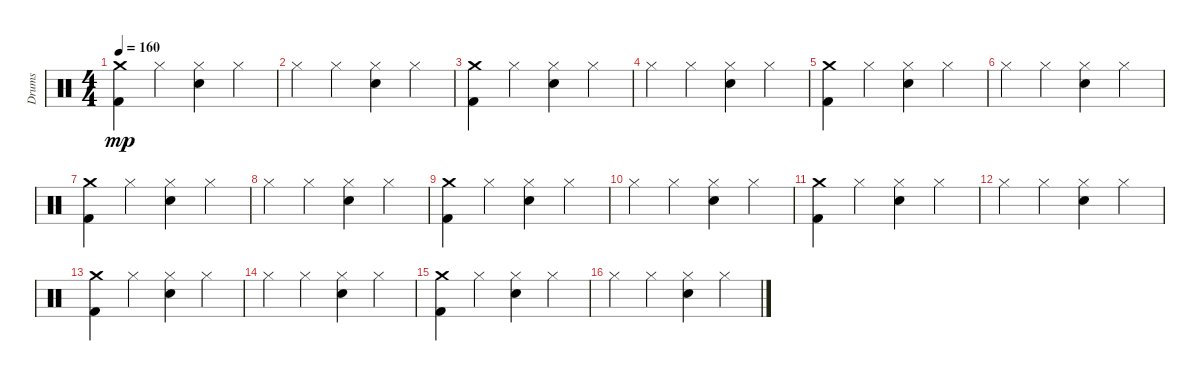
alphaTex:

\track ("Drums" "Drums") {instrument percussion}
\staff {score}
\articulation defaults
\ts (4 4)
\tempo 160
\clef neutral
\ks c
("Kick (hit) 2" "Crash medium (hit)").4{dy mp} "Hi-Hat (closed)".4 ("Snare (hit) 2" "Hi-Hat (closed)").4 "Hi-Hat (closed)".4 |
"Hi-Hat (closed)".4 "Hi-Hat (closed)".4 ("Snare (hit) 2" "Hi-Hat (closed)").4 "Hi-Hat (closed)".4 |
("Kick (hit) 2" "Crash medium (hit)").4 "Hi-Hat (closed)".4 ("Snare (hit) 2" "Hi-Hat (closed)").4 "Hi-Hat (closed)".4 |
"Hi-Hat (closed)".4 "Hi-Hat (closed)".4 ("Snare (hit) 2" "Hi-Hat (closed)").4 "Hi-Hat (closed)".4 |
("Kick (hit) 2" "Crash medium (hit)").4 "Hi-Hat (closed)".4 ("Snare (hit) 2" "Hi-Hat (closed)").4 "Hi-Hat (closed)".4 |
"Hi-Hat (closed)".4 "Hi-Hat (closed)".4 ("Snare (hit) 2" "Hi-Hat (closed)").4 "Hi-Hat (closed)".4 |
("Kick (hit) 2" "Crash medium (hit)").4 "Hi-Hat (closed)".4 ("Snare (hit) 2" "Hi-Hat (closed)").4 "Hi-Hat (closed)".4 |
"Hi-Hat (closed)".4 "Hi-Hat (closed)".4 ("Snare (hit) 2" "Hi-Hat (closed)").4 "Hi-Hat (closed)".4 |
("Kick (hit) 2" "Crash medium (hit)").4 "Hi-Hat (closed)".4 ("Snare (hit) 2" "Hi-Hat (closed)").4 "Hi-Hat (closed)".4 |
"Hi-Hat (closed)".4 "Hi-Hat (closed)".4 ("Snare (hit) 2" "Hi-Hat (closed)").4 "Hi-Hat (closed)".4 |
("Kick (hit) 2" "Crash medium (hit)").4 "Hi-Hat (closed)".4 ("Snare (hit) 2" "Hi-Hat (closed)").4 "Hi-Hat (closed)".4 |
"Hi-Hat (closed)".4 "Hi-Hat (closed)".4 ("Snare (hit) 2" "Hi-Hat (closed)").4 "Hi-Hat (closed)".4 |
("Kick (hit) 2" "Crash medium (hit)").4 "Hi-Hat (closed)".4 ("Snare (hit) 2" "Hi-Hat (closed)").4 "Hi-Hat (closed)".4 |
"Hi-Hat (closed)".4 "Hi-Hat (closed)".4 ("Snare (hit) 2" "Hi-Hat (closed)").4 "Hi-Hat (closed)".4 |
("Kick (hit) 2" "Crash medium (hit)").4 "Hi-Hat (closed)".4 ("Snare (hit) 2" "Hi-Hat (closed)").4 "Hi-Hat (closed)".4 |
"Hi-Hat (closed)".4 "Hi-Hat (closed)".4 ("Snare (hit) 2" "Hi-Hat (closed)").4 "Hi-Hat (closed)".4
